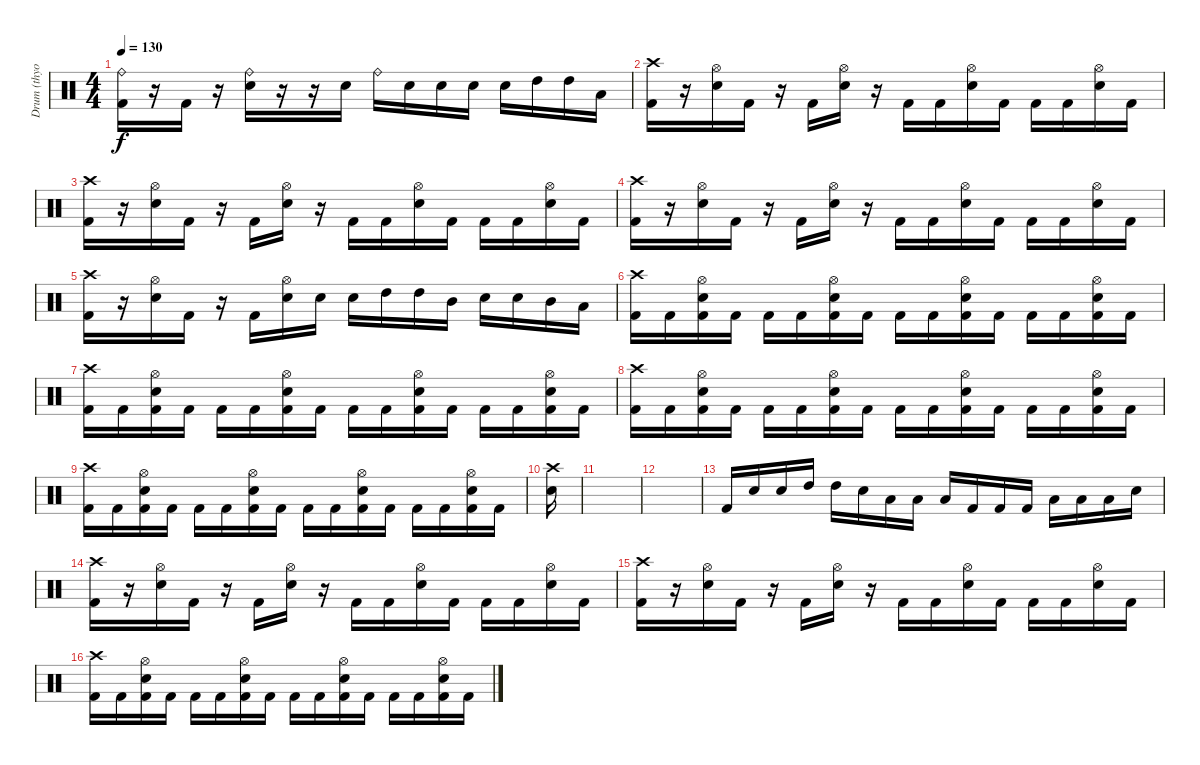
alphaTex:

\track ("Drum (thyo)" "Drum (thyo") {instrument percussion}
\staff {score}
\articulation defaults
\ts (4 4)
\tempo 130
\clef neutral
\ks c
("Ride (bell)" "Kick (hit) 2").16{dy f} r.16 "Kick (hit) 2".16 r.16 ("Electric Snare (hit)" "Ride (bell)").16 r.16 r.16 "Electric Snare (hit)".16 "Ride (bell)".16 "Electric Snare (hit)".16 "Electric Snare (hit)".16 "Electric Snare (hit)".16 "Electric Snare (hit)".16 "High Tom (hit)".16 "High Tom (hit)".16 "Low Tom (hit)".16 |
("Crash high (hit)" "Kick (hit) 2").16 r.16 ("Hi-Hat (open)" "Electric Snare (hit)").16 "Kick (hit) 2".16 r.16 "Kick (hit) 2".16 ("Hi-Hat (open)" "Electric Snare (hit)").16 r.16 "Kick (hit) 2".16 "Kick (hit) 2".16 ("Hi-Hat (open)" "Electric Snare (hit)").16 "Kick (hit) 2".16 "Kick (hit) 2".16 "Kick (hit) 2".16 ("Hi-Hat (open)" "Electric Snare (hit)").16 "Kick (hit) 2".16 |
("Crash high (hit)" "Kick (hit) 2").16 r.16 ("Hi-Hat (open)" "Electric Snare (hit)").16 "Kick (hit) 2".16 r.16 "Kick (hit) 2".16 ("Hi-Hat (open)" "Electric Snare (hit)").16 r.16 "Kick (hit) 2".16 "Kick (hit) 2".16 ("Hi-Hat (open)" "Electric Snare (hit)").16 "Kick (hit) 2".16 "Kick (hit) 2".16 "Kick (hit) 2".16 ("Hi-Hat (open)" "Electric Snare (hit)").16 "Kick (hit) 2".16 |
("Crash high (hit)" "Kick (hit) 2").16 r.16 ("Hi-Hat (open)" "Electric Snare (hit)").16 "Kick (hit) 2".16 r.16 "Kick (hit) 2".16 ("Hi-Hat (open)" "Electric Snare (hit)").16 r.16 "Kick (hit) 2".16 "Kick (hit) 2".16 ("Hi-Hat (open)" "Electric Snare (hit)").16 "Kick (hit) 2".16 "Kick (hit) 2".16 "Kick (hit) 2".16 ("Hi-Hat (open)" "Electric Snare (hit)").16 "Kick (hit) 2".16 |
("Crash high (hit)" "Kick (hit) 2").16 r.16 ("Hi-Hat (open)" "Electric Snare (hit)").16 "Kick (hit) 2".16 r.16 "Kick (hit) 2".16 ("Hi-Hat (open)" "Electric Snare (hit)").16 "Electric Snare (hit)".16 "Electric Snare (hit)".16 "High Tom (hit)".16 "High Tom (hit)".16 "Mid Tom (hit)".16 "Electric Snare (hit)".16 "Electric Snare (hit)".16 "Mid Tom (hit)".16 "Low Tom (hit)".16 |
("Crash high (hit)" "Kick (hit) 2").16 "Kick (hit) 2".16 ("Hi-Hat (open)" "Electric Snare (hit)" "Kick (hit) 2").16 "Kick (hit) 2".16 "Kick (hit) 2".16 "Kick (hit) 2".16 ("Hi-Hat (open)" "Electric Snare (hit)" "Kick (hit) 2").16 "Kick (hit) 2".16 "Kick (hit) 2".16 "Kick (hit) 2".16 ("Hi-Hat (open)" "Electric Snare (hit)" "Kick (hit) 2").16 "Kick (hit) 2".16 "Kick (hit) 2".16 "Kick (hit) 2".16 ("Hi-Hat (open)" "Electric Snare (hit)" "Kick (hit) 2").16 "Kick (hit) 2".16 |
("Crash high (hit)" "Kick (hit) 2").16 "Kick (hit) 2".16 ("Hi-Hat (open)" "Electric Snare (hit)" "Kick (hit) 2").16 "Kick (hit) 2".16 "Kick (hit) 2".16 "Kick (hit) 2".16 ("Hi-Hat (open)" "Electric Snare (hit)" "Kick (hit) 2").16 "Kick (hit) 2".16 "Kick (hit) 2".16 "Kick (hit) 2".16 ("Hi-Hat (open)" "Electric Snare (hit)" "Kick (hit) 2").16 "Kick (hit) 2".16 "Kick (hit) 2".16 "Kick (hit) 2".16 ("Hi-Hat (open)" "Electric Snare (hit)" "Kick (hit) 2").16 "Kick (hit) 2".16 |
("Crash high (hit)" "Kick (hit) 2").16 "Kick (hit) 2".16 ("Hi-Hat (open)" "Electric Snare (hit)" "Kick (hit) 2").16 "Kick (hit) 2".16 "Kick (hit) 2".16 "Kick (hit) 2".16 ("Hi-Hat (open)" "Electric Snare (hit)" "Kick (hit) 2").16 "Kick (hit) 2".16 "Kick (hit) 2".16 "Kick (hit) 2".16 ("Hi-Hat (open)" "Electric Snare (hit)" "Kick (hit) 2").16 "Kick (hit) 2".16 "Kick (hit) 2".16 "Kick (hit) 2".16 ("Hi-Hat (open)" "Electric Snare (hit)" "Kick (hit) 2").16 "Kick (hit) 2".16 |
("Crash high (hit)" "Kick (hit) 2").16 "Kick (hit) 2".16 ("Hi-Hat (open)" "Electric Snare (hit)" "Kick (hit) 2").16 "Kick (hit) 2".16 "Kick (hit) 2".16 "Kick (hit) 2".16 ("Hi-Hat (open)" "Electric Snare (hit)" "Kick (hit) 2").16 "Kick (hit) 2".16 "Kick (hit) 2".16 "Kick (hit) 2".16 ("Hi-Hat (open)" "Electric Snare (hit)" "Kick (hit) 2").16 "Kick (hit) 2".16 "Kick (hit) 2".16 "Kick (hit) 2".16 ("Hi-Hat (open)" "Electric Snare (hit)" "Kick (hit) 2").16 "Kick (hit) 2".16 |
("Crash high (hit)" "Electric Snare (hit)").16 |
|
|
"Kick (hit) 2".16 "Electric Snare (hit)".16 "Electric Snare (hit)".16 "High Tom (hit)".16 "High Tom (hit)".16 "Electric Snare (hit)".16 "Low Tom (hit)".16 "Low Tom (hit)".16 "Low Tom (hit)".16 "Kick (hit) 2".16 "Kick (hit) 2".16 "Kick (hit) 2".16 "Low Floor Tom (hit)".16 "Low Floor Tom (hit)".16 "Low Floor Tom (hit)".16 "Electric Snare (hit)".16 |
("Crash high (hit)" "Kick (hit) 2").16 r.16 ("Hi-Hat (open)" "Electric Snare (hit)").16 "Kick (hit) 2".16 r.16 "Kick (hit) 2".16 ("Hi-Hat (open)" "Electric Snare (hit)").16 r.16 "Kick (hit) 2".16 "Kick (hit) 2".16 ("Hi-Hat (open)" "Electric Snare (hit)").16 "Kick (hit) 2".16 "Kick (hit) 2".16 "Kick (hit) 2".16 ("Hi-Hat (open)" "Electric Snare (hit)").16 "Kick (hit) 2".16 |
("Crash high (hit)" "Kick (hit) 2").16 r.16 ("Hi-Hat (open)" "Electric Snare (hit)").16 "Kick (hit) 2".16 r.16 "Kick (hit) 2".16 ("Hi-Hat (open)" "Electric Snare (hit)").16 r.16 "Kick (hit) 2".16 "Kick (hit) 2".16 ("Hi-Hat (open)" "Electric Snare (hit)").16 "Kick (hit) 2".16 "Kick (hit) 2".16 "Kick (hit) 2".16 ("Hi-Hat (open)" "Electric Snare (hit)").16 "Kick (hit) 2".16 |
("Crash high (hit)" "Kick (hit) 2").16 "Kick (hit) 2".16 ("Hi-Hat (open)" "Electric Snare (hit)" "Kick (hit) 2").16 "Kick (hit) 2".16 "Kick (hit) 2".16 "Kick (hit) 2".16 ("Hi-Hat (open)" "Electric Snare (hit)" "Kick (hit) 2").16 "Kick (hit) 2".16 "Kick (hit) 2".16 "Kick (hit) 2".16 ("Hi-Hat (open)" "Electric Snare (hit)" "Kick (hit) 2").16 "Kick (hit) 2".16 "Kick (hit) 2".16 "Kick (hit) 2".16 ("Hi-Hat (open)" "Electric Snare (hit)" "Kick (hit) 2").16 "Kick (hit) 2".16
